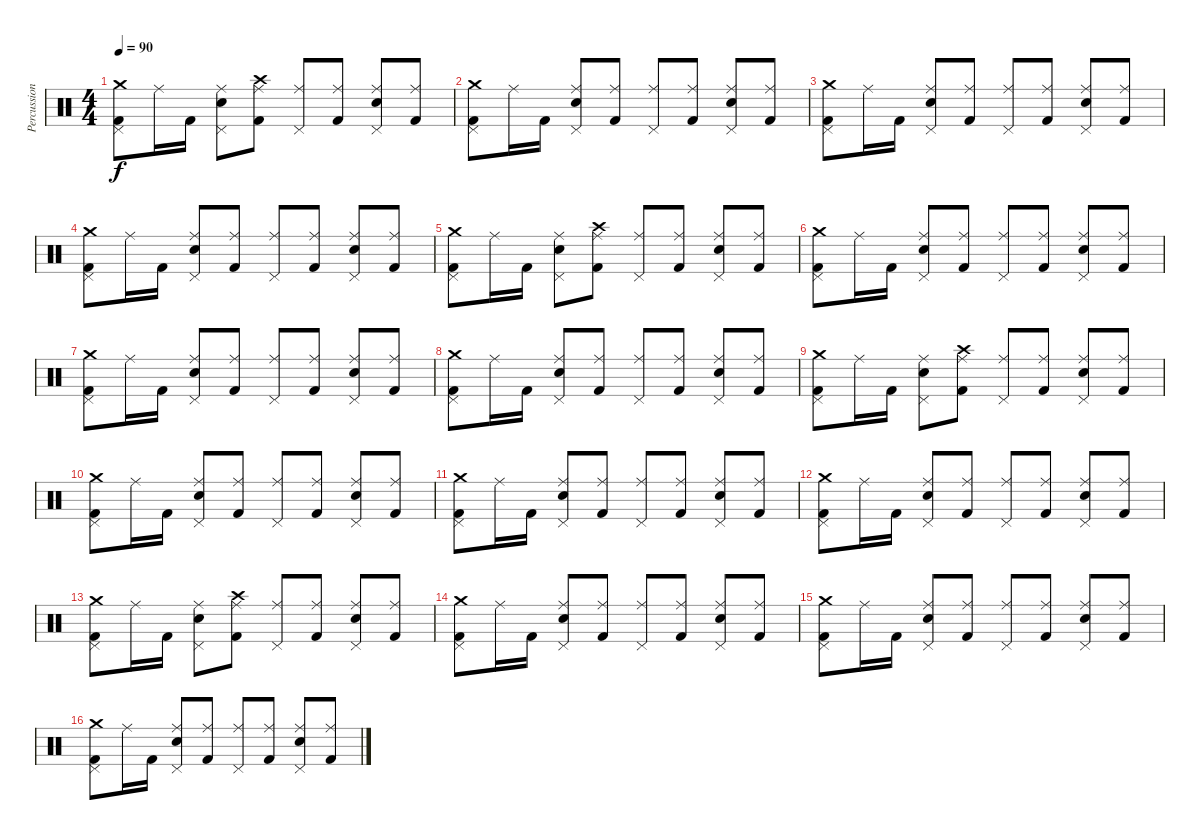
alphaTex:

\track ("Percussions" "Percussion") {instrument percussion}
\staff {score}
\articulation defaults
\ts (4 4)
\tempo 90
\clef neutral
\ks c
("Crash medium (hit)" "Pedal Hi-Hat (hit)" "Kick (hit) 2").8{dy f} "Ride (middle)".16 "Kick (hit) 2".16 ("Pedal Hi-Hat (hit)" "Ride (middle)" "Electric Snare (hit)").8 ("Crash high (hit)" "Ride (middle)" "Kick (hit) 2").8 ("Pedal Hi-Hat (hit)" "Ride (middle)").8 ("Ride (middle)" "Kick (hit) 2").8 ("Pedal Hi-Hat (hit)" "Ride (middle)" "Electric Snare (hit)").8 ("Ride (middle)" "Kick (hit) 2").8 |
("Crash medium (hit)" "Pedal Hi-Hat (hit)" "Kick (hit) 2").8 "Ride (middle)".16 "Kick (hit) 2".16 ("Pedal Hi-Hat (hit)" "Ride (middle)" "Electric Snare (hit)").8 ("Ride (middle)" "Kick (hit) 2").8 ("Pedal Hi-Hat (hit)" "Ride (middle)").8 ("Ride (middle)" "Kick (hit) 2").8 ("Pedal Hi-Hat (hit)" "Ride (middle)" "Electric Snare (hit)").8 ("Ride (middle)" "Kick (hit) 2").8 |
("Crash medium (hit)" "Pedal Hi-Hat (hit)" "Kick (hit) 2").8 "Ride (middle)".16 "Kick (hit) 2".16 ("Pedal Hi-Hat (hit)" "Ride (middle)" "Electric Snare (hit)").8 ("Ride (middle)" "Kick (hit) 2").8 ("Pedal Hi-Hat (hit)" "Ride (middle)").8 ("Ride (middle)" "Kick (hit) 2").8 ("Pedal Hi-Hat (hit)" "Ride (middle)" "Electric Snare (hit)").8 ("Ride (middle)" "Kick (hit) 2").8 |
("Crash medium (hit)" "Pedal Hi-Hat (hit)" "Kick (hit) 2").8 "Ride (middle)".16 "Kick (hit) 2".16 ("Pedal Hi-Hat (hit)" "Ride (middle)" "Electric Snare (hit)").8 ("Ride (middle)" "Kick (hit) 2").8 ("Pedal Hi-Hat (hit)" "Ride (middle)").8 ("Ride (middle)" "Kick (hit) 2").8 ("Pedal Hi-Hat (hit)" "Ride (middle)" "Electric Snare (hit)").8 ("Ride (middle)" "Kick (hit) 2").8 |
("Crash medium (hit)" "Pedal Hi-Hat (hit)" "Kick (hit) 2").8 "Ride (middle)".16 "Kick (hit) 2".16 ("Pedal Hi-Hat (hit)" "Ride (middle)" "Electric Snare (hit)").8 ("Crash high (hit)" "Ride (middle)" "Kick (hit) 2").8 ("Pedal Hi-Hat (hit)" "Ride (middle)").8 ("Ride (middle)" "Kick (hit) 2").8 ("Pedal Hi-Hat (hit)" "Ride (middle)" "Electric Snare (hit)").8 ("Ride (middle)" "Kick (hit) 2").8 |
("Crash medium (hit)" "Pedal Hi-Hat (hit)" "Kick (hit) 2").8 "Ride (middle)".16 "Kick (hit) 2".16 ("Pedal Hi-Hat (hit)" "Ride (middle)" "Electric Snare (hit)").8 ("Ride (middle)" "Kick (hit) 2").8 ("Pedal Hi-Hat (hit)" "Ride (middle)").8 ("Ride (middle)" "Kick (hit) 2").8 ("Pedal Hi-Hat (hit)" "Ride (middle)" "Electric Snare (hit)").8 ("Ride (middle)" "Kick (hit) 2").8 |
("Crash medium (hit)" "Pedal Hi-Hat (hit)" "Kick (hit) 2").8 "Ride (middle)".16 "Kick (hit) 2".16 ("Pedal Hi-Hat (hit)" "Ride (middle)" "Electric Snare (hit)").8 ("Ride (middle)" "Kick (hit) 2").8 ("Pedal Hi-Hat (hit)" "Ride (middle)").8 ("Ride (middle)" "Kick (hit) 2").8 ("Pedal Hi-Hat (hit)" "Ride (middle)" "Electric Snare (hit)").8 ("Ride (middle)" "Kick (hit) 2").8 |
("Crash medium (hit)" "Pedal Hi-Hat (hit)" "Kick (hit) 2").8 "Ride (middle)".16 "Kick (hit) 2".16 ("Pedal Hi-Hat (hit)" "Ride (middle)" "Electric Snare (hit)").8 ("Ride (middle)" "Kick (hit) 2").8 ("Pedal Hi-Hat (hit)" "Ride (middle)").8 ("Ride (middle)" "Kick (hit) 2").8 ("Pedal Hi-Hat (hit)" "Ride (middle)" "Electric Snare (hit)").8 ("Ride (middle)" "Kick (hit) 2").8 |
("Crash medium (hit)" "Pedal Hi-Hat (hit)" "Kick (hit) 2").8 "Ride (middle)".16 "Kick (hit) 2".16 ("Pedal Hi-Hat (hit)" "Ride (middle)" "Electric Snare (hit)").8 ("Crash high (hit)" "Ride (middle)" "Kick (hit) 2").8 ("Pedal Hi-Hat (hit)" "Ride (middle)").8 ("Ride (middle)" "Kick (hit) 2").8 ("Pedal Hi-Hat (hit)" "Ride (middle)" "Electric Snare (hit)").8 ("Ride (middle)" "Kick (hit) 2").8 |
("Crash medium (hit)" "Pedal Hi-Hat (hit)" "Kick (hit) 2").8 "Ride (middle)".16 "Kick (hit) 2".16 ("Pedal Hi-Hat (hit)" "Ride (middle)" "Electric Snare (hit)").8 ("Ride (middle)" "Kick (hit) 2").8 ("Pedal Hi-Hat (hit)" "Ride (middle)").8 ("Ride (middle)" "Kick (hit) 2").8 ("Pedal Hi-Hat (hit)" "Ride (middle)" "Electric Snare (hit)").8 ("Ride (middle)" "Kick (hit) 2").8 |
("Crash medium (hit)" "Pedal Hi-Hat (hit)" "Kick (hit) 2").8 "Ride (middle)".16 "Kick (hit) 2".16 ("Pedal Hi-Hat (hit)" "Ride (middle)" "Electric Snare (hit)").8 ("Ride (middle)" "Kick (hit) 2").8 ("Pedal Hi-Hat (hit)" "Ride (middle)").8 ("Ride (middle)" "Kick (hit) 2").8 ("Pedal Hi-Hat (hit)" "Ride (middle)" "Electric Snare (hit)").8 ("Ride (middle)" "Kick (hit) 2").8 |
("Crash medium (hit)" "Pedal Hi-Hat (hit)" "Kick (hit) 2").8 "Ride (middle)".16 "Kick (hit) 2".16 ("Pedal Hi-Hat (hit)" "Ride (middle)" "Electric Snare (hit)").8 ("Ride (middle)" "Kick (hit) 2").8 ("Pedal Hi-Hat (hit)" "Ride (middle)").8 ("Ride (middle)" "Kick (hit) 2").8 ("Pedal Hi-Hat (hit)" "Ride (middle)" "Electric Snare (hit)").8 ("Ride (middle)" "Kick (hit) 2").8 |
("Crash medium (hit)" "Pedal Hi-Hat (hit)" "Kick (hit) 2").8 "Ride (middle)".16 "Kick (hit) 2".16 ("Pedal Hi-Hat (hit)" "Ride (middle)" "Electric Snare (hit)").8 ("Crash high (hit)" "Ride (middle)" "Kick (hit) 2").8 ("Pedal Hi-Hat (hit)" "Ride (middle)").8 ("Ride (middle)" "Kick (hit) 2").8 ("Pedal Hi-Hat (hit)" "Ride (middle)" "Electric Snare (hit)").8 ("Ride (middle)" "Kick (hit) 2").8 |
("Crash medium (hit)" "Pedal Hi-Hat (hit)" "Kick (hit) 2").8 "Ride (middle)".16 "Kick (hit) 2".16 ("Pedal Hi-Hat (hit)" "Ride (middle)" "Electric Snare (hit)").8 ("Ride (middle)" "Kick (hit) 2").8 ("Pedal Hi-Hat (hit)" "Ride (middle)").8 ("Ride (middle)" "Kick (hit) 2").8 ("Pedal Hi-Hat (hit)" "Ride (middle)" "Electric Snare (hit)").8 ("Ride (middle)" "Kick (hit) 2").8 |
("Crash medium (hit)" "Pedal Hi-Hat (hit)" "Kick (hit) 2").8 "Ride (middle)".16 "Kick (hit) 2".16 ("Pedal Hi-Hat (hit)" "Ride (middle)" "Electric Snare (hit)").8 ("Ride (middle)" "Kick (hit) 2").8 ("Pedal Hi-Hat (hit)" "Ride (middle)").8 ("Ride (middle)" "Kick (hit) 2").8 ("Pedal Hi-Hat (hit)" "Ride (middle)" "Electric Snare (hit)").8 ("Ride (middle)" "Kick (hit) 2").8 |
("Crash medium (hit)" "Pedal Hi-Hat (hit)" "Kick (hit) 2").8 "Ride (middle)".16 "Kick (hit) 2".16 ("Pedal Hi-Hat (hit)" "Ride (middle)" "Electric Snare (hit)").8 ("Ride (middle)" "Kick (hit) 2").8 ("Pedal Hi-Hat (hit)" "Ride (middle)").8 ("Ride (middle)" "Kick (hit) 2").8 ("Pedal Hi-Hat (hit)" "Ride (middle)" "Electric Snare (hit)").8 ("Ride (middle)" "Kick (hit) 2").8
